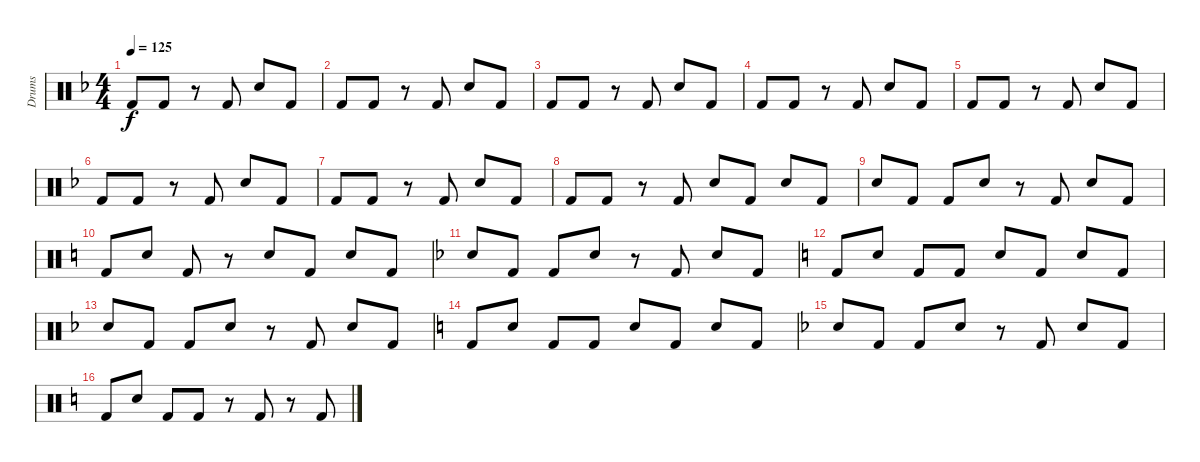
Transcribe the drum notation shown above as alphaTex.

\track ("Drums" "Drums") {instrument percussion}
\staff {score}
\articulation defaults
\ts (4 4)
\tempo 125
\clef neutral
\ks f "Kick (hit) 2".8{dy f} "Kick (hit) 2".8
r.8 "Kick (hit) 2".8 "Snare (hit) 2".8 "Kick (hit) 2".8 |
"Kick (hit) 2".8 "Kick (hit) 2".8 r.8 "Kick (hit) 2".8 "Snare (hit) 2".8 "Kick (hit) 2".8 |
"Kick (hit) 2".8 "Kick (hit) 2".8 r.8 "Kick (hit) 2".8 "Snare (hit) 2".8 "Kick (hit) 2".8 |
"Kick (hit) 2".8 "Kick (hit) 2".8 r.8 "Kick (hit) 2".8 "Snare (hit) 2".8 "Kick (hit) 2".8 |
"Kick (hit) 2".8 "Kick (hit) 2".8 r.8 "Kick (hit) 2".8 "Snare (hit) 2".8 "Kick (hit) 2".8 |
"Kick (hit) 2".8 "Kick (hit) 2".8 r.8 "Kick (hit) 2".8 "Snare (hit) 2".8 "Kick (hit) 2".8 |
"Kick (hit) 2".8 "Kick (hit) 2".8 r.8 "Kick (hit) 2".8 "Snare (hit) 2".8 "Kick (hit) 2".8 |
"Kick (hit) 2".8 "Kick (hit) 2".8 r.8 "Kick (hit) 2".8 "Snare (hit) 2".8 "Kick (hit) 2".8 "Snare (hit) 2".8 "Kick (hit) 2".8 |
"Snare (hit) 2".8 "Kick (hit) 2".8 "Kick (hit) 2".8 "Snare (hit) 2".8 r.8 "Kick (hit) 2".8 "Snare (hit) 2".8 "Kick (hit) 2".8 |
\ks c "Kick (hit) 2".8 "Snare (hit) 2".8 "Kick (hit) 2".8
r.8 "Snare (hit) 2".8 "Kick (hit) 2".8 "Snare (hit) 2".8 "Kick (hit) 2".8 |
\ks f "Snare (hit) 2".8 "Kick (hit) 2".8 "Kick (hit) 2".8 "Snare (hit) 2".8
r.8 "Kick (hit) 2".8 "Snare (hit) 2".8 "Kick (hit) 2".8 |
\ks c "Kick (hit) 2".8 "Snare (hit) 2".8 "Kick (hit) 2".8 "Kick (hit) 2".8 "Snare (hit) 2".8 "Kick (hit) 2".8 "Snare (hit) 2".8 "Kick (hit) 2".8
|
\ks f "Snare (hit) 2".8 "Kick (hit) 2".8 "Kick (hit) 2".8 "Snare (hit) 2".8
r.8 "Kick (hit) 2".8 "Snare (hit) 2".8 "Kick (hit) 2".8 |
\ks c "Kick (hit) 2".8 "Snare (hit) 2".8 "Kick (hit) 2".8 "Kick (hit) 2".8 "Snare (hit) 2".8 "Kick (hit) 2".8 "Snare (hit) 2".8 "Kick (hit) 2".8
|
\ks f "Snare (hit) 2".8 "Kick (hit) 2".8 "Kick (hit) 2".8 "Snare (hit) 2".8
r.8 "Kick (hit) 2".8 "Snare (hit) 2".8 "Kick (hit) 2".8 |
\ks c "Kick (hit) 2".8 "Snare (hit) 2".8 "Kick (hit) 2".8 "Kick (hit) 2".8
r.8 "Kick (hit) 2".8 r.8 "Kick (hit) 2".8
